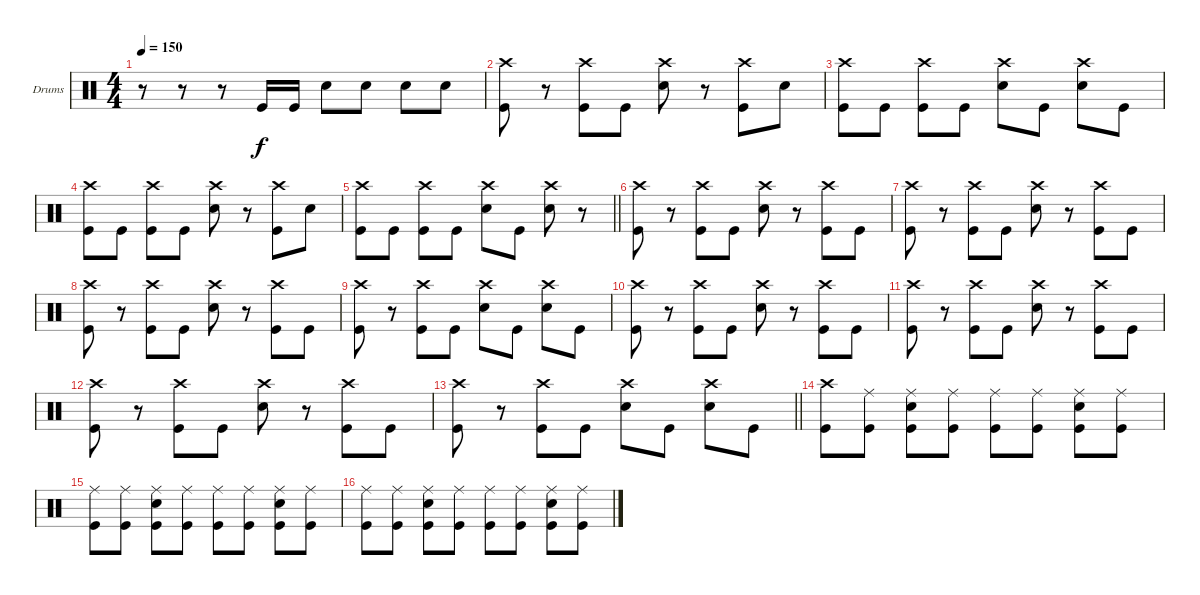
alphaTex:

\bracketExtendMode nobrackets
\firstSystemTrackNameOrientation horizontal
\otherSystemsTrackNameOrientation horizontal
\track ("Drumkit" "Drums") {instrument percussion}
\staff {score}
\articulation defaults
\ts (4 4)
\tempo 150
\clef neutral
\ks c
r.8{dy f} r.8 r.8 "Kick (hit)".16 "Kick (hit)".16 "Snare (hit) 2".8 "Snare (hit) 2".8 "Snare (hit) 2".8 "Snare (hit) 2".8 |
("Crash high (hit)" "Kick (hit)").8 r.8 ("Crash high (hit)" "Kick (hit)").8 "Kick (hit)".8 ("Crash high (hit)" "Snare (hit) 2").8 r.8 ("Crash high (hit)" "Kick (hit)").8 "Snare (hit) 2".8 |
("Crash high (hit)" "Kick (hit)").8 "Kick (hit)".8 ("Crash high (hit)" "Kick (hit)").8 "Kick (hit)".8 ("Crash high (hit)" "Snare (hit) 2").8 "Kick (hit)".8 ("Crash high (hit)" "Snare (hit) 2").8 "Kick (hit)".8 |
("Crash high (hit)" "Kick (hit)").8 "Kick (hit)".8 ("Crash high (hit)" "Kick (hit)").8 "Kick (hit)".8 ("Crash high (hit)" "Snare (hit) 2").8 r.8 ("Crash high (hit)" "Kick (hit)").8 "Snare (hit) 2".8 |
\barLineRight lightlight
("Crash high (hit)" "Kick (hit)").8 "Kick (hit)".8 ("Crash high (hit)" "Kick (hit)").8 "Kick (hit)".8 ("Crash high (hit)" "Snare (hit) 2").8 "Kick (hit)".8 ("Crash high (hit)" "Snare (hit) 2").8 r.8 |
("Crash high (hit)" "Kick (hit)").8 r.8 ("Crash high (hit)" "Kick (hit)").8 "Kick (hit)".8 ("Crash high (hit)" "Snare (hit) 2").8 r.8 ("Crash high (hit)" "Kick (hit)").8 "Kick (hit)".8 |
("Crash high (hit)" "Kick (hit)").8 r.8 ("Crash high (hit)" "Kick (hit)").8 "Kick (hit)".8 ("Crash high (hit)" "Snare (hit) 2").8 r.8 ("Crash high (hit)" "Kick (hit)").8 "Kick (hit)".8 |
("Crash high (hit)" "Kick (hit)").8 r.8 ("Crash high (hit)" "Kick (hit)").8 "Kick (hit)".8 ("Crash high (hit)" "Snare (hit) 2").8 r.8 ("Crash high (hit)" "Kick (hit)").8 "Kick (hit)".8 |
("Crash high (hit)" "Kick (hit)").8 r.8 ("Crash high (hit)" "Kick (hit)").8 "Kick (hit)".8 ("Crash high (hit)" "Snare (hit) 2").8 "Kick (hit)".8 ("Crash high (hit)" "Snare (hit) 2").8 "Kick (hit)".8 |
("Crash high (hit)" "Kick (hit)").8 r.8 ("Crash high (hit)" "Kick (hit)").8 "Kick (hit)".8 ("Crash high (hit)" "Snare (hit) 2").8 r.8 ("Crash high (hit)" "Kick (hit)").8 "Kick (hit)".8 |
("Crash high (hit)" "Kick (hit)").8 r.8 ("Crash high (hit)" "Kick (hit)").8 "Kick (hit)".8 ("Crash high (hit)" "Snare (hit) 2").8 r.8 ("Crash high (hit)" "Kick (hit)").8 "Kick (hit)".8 |
("Crash high (hit)" "Kick (hit)").8 r.8 ("Crash high (hit)" "Kick (hit)").8 "Kick (hit)".8 ("Crash high (hit)" "Snare (hit) 2").8 r.8 ("Crash high (hit)" "Kick (hit)").8 "Kick (hit)".8 |
\barLineRight lightlight
("Crash high (hit)" "Kick (hit)").8 r.8 ("Crash high (hit)" "Kick (hit)").8 "Kick (hit)".8 ("Crash high (hit)" "Snare (hit) 2").8 "Kick (hit)".8 ("Crash high (hit)" "Snare (hit) 2").8 "Kick (hit)".8 |
("Kick (hit)" "Crash high (hit)").8 ("Kick (hit)" "Ride (middle)").8 ("Snare (hit) 2" "Kick (hit)" "Ride (middle)").8 ("Kick (hit)" "Ride (middle)").8 ("Kick (hit)" "Ride (middle)").8 ("Kick (hit)" "Ride (middle)").8 ("Snare (hit) 2" "Kick (hit)" "Ride (middle)").8 ("Kick (hit)" "Ride (middle)").8 |
("Kick (hit)" "Ride (middle)").8 ("Kick (hit)" "Ride (middle)").8 ("Snare (hit) 2" "Kick (hit)" "Ride (middle)").8 ("Kick (hit)" "Ride (middle)").8 ("Kick (hit)" "Ride (middle)").8 ("Kick (hit)" "Ride (middle)").8 ("Snare (hit) 2" "Kick (hit)" "Ride (middle)").8 ("Kick (hit)" "Ride (middle)").8 |
("Kick (hit)" "Ride (middle)").8 ("Kick (hit)" "Ride (middle)").8 ("Snare (hit) 2" "Kick (hit)" "Ride (middle)").8 ("Kick (hit)" "Ride (middle)").8 ("Kick (hit)" "Ride (middle)").8 ("Kick (hit)" "Ride (middle)").8 ("Snare (hit) 2" "Kick (hit)" "Ride (middle)").8 ("Kick (hit)" "Ride (middle)").8
